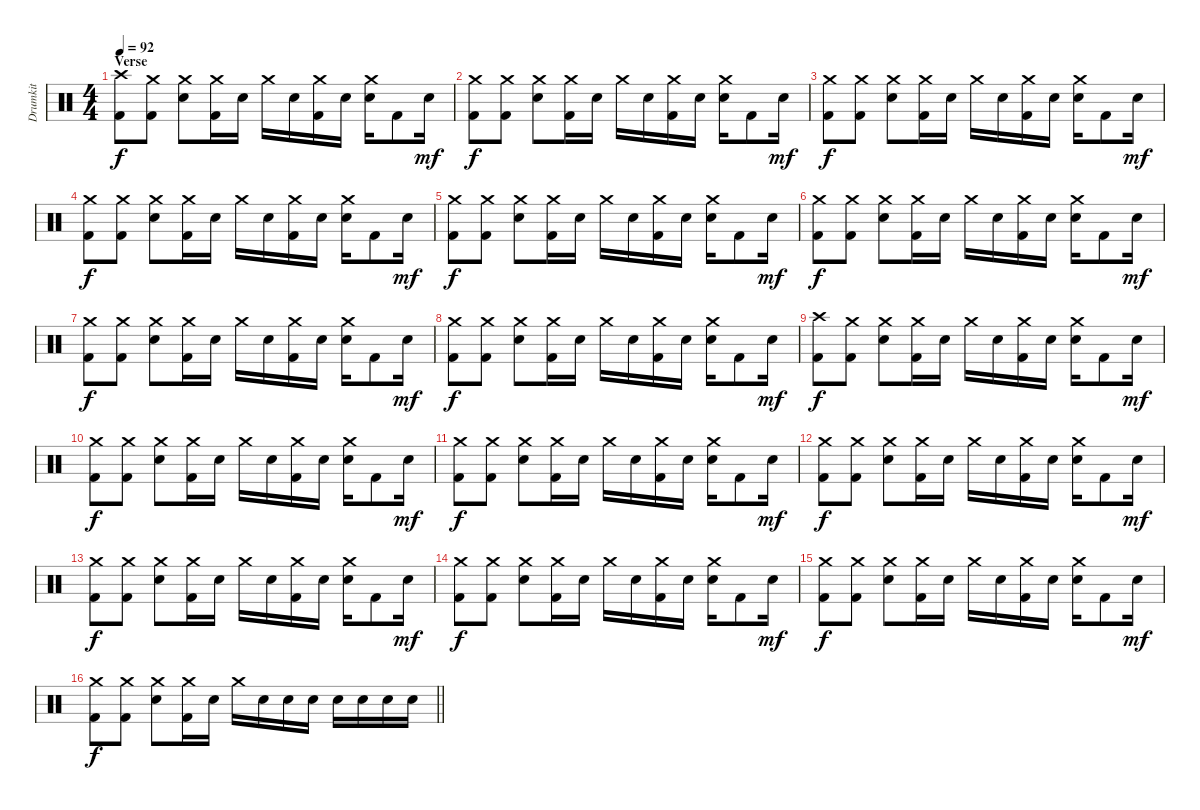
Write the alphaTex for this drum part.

\track ("Drumkit" "Drumkit") {instrument percussion}
\staff {score}
\articulation defaults
\ts (4 4)
\section ("" "Verse")
\tempo 92
\clef neutral
\ks c
("Crash high (hit)" "Kick (hit) 2").8{dy f} ("Crash medium (hit)" "Kick (hit) 2").8 ("Crash medium (hit)" "Snare (hit) 2").8 ("Crash medium (hit)" "Kick (hit) 2").16 "Snare (hit) 2".16 "Crash medium (hit)".16 "Snare (hit) 2".16 ("Crash medium (hit)" "Kick (hit) 2").16 "Snare (hit) 2".16 ("Crash medium (hit)" "Snare (hit) 2").16 "Kick (hit) 2".8 "Snare (hit) 2".16{dy mf} |
("Crash medium (hit)" "Kick (hit) 2").8{dy f} ("Crash medium (hit)" "Kick (hit) 2").8 ("Crash medium (hit)" "Snare (hit) 2").8 ("Crash medium (hit)" "Kick (hit) 2").16 "Snare (hit) 2".16 "Crash medium (hit)".16 "Snare (hit) 2".16 ("Crash medium (hit)" "Kick (hit) 2").16 "Snare (hit) 2".16 ("Crash medium (hit)" "Snare (hit) 2").16 "Kick (hit) 2".8 "Snare (hit) 2".16{dy mf} |
("Crash medium (hit)" "Kick (hit) 2").8{dy f} ("Crash medium (hit)" "Kick (hit) 2").8 ("Crash medium (hit)" "Snare (hit) 2").8 ("Crash medium (hit)" "Kick (hit) 2").16 "Snare (hit) 2".16 "Crash medium (hit)".16 "Snare (hit) 2".16 ("Crash medium (hit)" "Kick (hit) 2").16 "Snare (hit) 2".16 ("Crash medium (hit)" "Snare (hit) 2").16 "Kick (hit) 2".8 "Snare (hit) 2".16{dy mf} |
("Crash medium (hit)" "Kick (hit) 2").8{dy f} ("Crash medium (hit)" "Kick (hit) 2").8 ("Crash medium (hit)" "Snare (hit) 2").8 ("Crash medium (hit)" "Kick (hit) 2").16 "Snare (hit) 2".16 "Crash medium (hit)".16 "Snare (hit) 2".16 ("Crash medium (hit)" "Kick (hit) 2").16 "Snare (hit) 2".16 ("Crash medium (hit)" "Snare (hit) 2").16 "Kick (hit) 2".8 "Snare (hit) 2".16{dy mf} |
("Crash medium (hit)" "Kick (hit) 2").8{dy f} ("Crash medium (hit)" "Kick (hit) 2").8 ("Crash medium (hit)" "Snare (hit) 2").8 ("Crash medium (hit)" "Kick (hit) 2").16 "Snare (hit) 2".16 "Crash medium (hit)".16 "Snare (hit) 2".16 ("Crash medium (hit)" "Kick (hit) 2").16 "Snare (hit) 2".16 ("Crash medium (hit)" "Snare (hit) 2").16 "Kick (hit) 2".8 "Snare (hit) 2".16{dy mf} |
("Crash medium (hit)" "Kick (hit) 2").8{dy f} ("Crash medium (hit)" "Kick (hit) 2").8 ("Crash medium (hit)" "Snare (hit) 2").8 ("Crash medium (hit)" "Kick (hit) 2").16 "Snare (hit) 2".16 "Crash medium (hit)".16 "Snare (hit) 2".16 ("Crash medium (hit)" "Kick (hit) 2").16 "Snare (hit) 2".16 ("Crash medium (hit)" "Snare (hit) 2").16 "Kick (hit) 2".8 "Snare (hit) 2".16{dy mf} |
("Crash medium (hit)" "Kick (hit) 2").8{dy f} ("Crash medium (hit)" "Kick (hit) 2").8 ("Crash medium (hit)" "Snare (hit) 2").8 ("Crash medium (hit)" "Kick (hit) 2").16 "Snare (hit) 2".16 "Crash medium (hit)".16 "Snare (hit) 2".16 ("Crash medium (hit)" "Kick (hit) 2").16 "Snare (hit) 2".16 ("Crash medium (hit)" "Snare (hit) 2").16 "Kick (hit) 2".8 "Snare (hit) 2".16{dy mf} |
("Crash medium (hit)" "Kick (hit) 2").8{dy f} ("Crash medium (hit)" "Kick (hit) 2").8 ("Crash medium (hit)" "Snare (hit) 2").8 ("Crash medium (hit)" "Kick (hit) 2").16 "Snare (hit) 2".16 "Crash medium (hit)".16 "Snare (hit) 2".16 ("Crash medium (hit)" "Kick (hit) 2").16 "Snare (hit) 2".16 ("Crash medium (hit)" "Snare (hit) 2").16 "Kick (hit) 2".8 "Snare (hit) 2".16{dy mf} |
("Crash high (hit)" "Kick (hit) 2").8{dy f} ("Crash medium (hit)" "Kick (hit) 2").8 ("Crash medium (hit)" "Snare (hit) 2").8 ("Crash medium (hit)" "Kick (hit) 2").16 "Snare (hit) 2".16 "Crash medium (hit)".16 "Snare (hit) 2".16 ("Crash medium (hit)" "Kick (hit) 2").16 "Snare (hit) 2".16 ("Crash medium (hit)" "Snare (hit) 2").16 "Kick (hit) 2".8 "Snare (hit) 2".16{dy mf} |
("Crash medium (hit)" "Kick (hit) 2").8{dy f} ("Crash medium (hit)" "Kick (hit) 2").8 ("Crash medium (hit)" "Snare (hit) 2").8 ("Crash medium (hit)" "Kick (hit) 2").16 "Snare (hit) 2".16 "Crash medium (hit)".16 "Snare (hit) 2".16 ("Crash medium (hit)" "Kick (hit) 2").16 "Snare (hit) 2".16 ("Crash medium (hit)" "Snare (hit) 2").16 "Kick (hit) 2".8 "Snare (hit) 2".16{dy mf} |
("Crash medium (hit)" "Kick (hit) 2").8{dy f} ("Crash medium (hit)" "Kick (hit) 2").8 ("Crash medium (hit)" "Snare (hit) 2").8 ("Crash medium (hit)" "Kick (hit) 2").16 "Snare (hit) 2".16 "Crash medium (hit)".16 "Snare (hit) 2".16 ("Crash medium (hit)" "Kick (hit) 2").16 "Snare (hit) 2".16 ("Crash medium (hit)" "Snare (hit) 2").16 "Kick (hit) 2".8 "Snare (hit) 2".16{dy mf} |
("Crash medium (hit)" "Kick (hit) 2").8{dy f} ("Crash medium (hit)" "Kick (hit) 2").8 ("Crash medium (hit)" "Snare (hit) 2").8 ("Crash medium (hit)" "Kick (hit) 2").16 "Snare (hit) 2".16 "Crash medium (hit)".16 "Snare (hit) 2".16 ("Crash medium (hit)" "Kick (hit) 2").16 "Snare (hit) 2".16 ("Crash medium (hit)" "Snare (hit) 2").16 "Kick (hit) 2".8 "Snare (hit) 2".16{dy mf} |
("Crash medium (hit)" "Kick (hit) 2").8{dy f} ("Crash medium (hit)" "Kick (hit) 2").8 ("Crash medium (hit)" "Snare (hit) 2").8 ("Crash medium (hit)" "Kick (hit) 2").16 "Snare (hit) 2".16 "Crash medium (hit)".16 "Snare (hit) 2".16 ("Crash medium (hit)" "Kick (hit) 2").16 "Snare (hit) 2".16 ("Crash medium (hit)" "Snare (hit) 2").16 "Kick (hit) 2".8 "Snare (hit) 2".16{dy mf} |
("Crash medium (hit)" "Kick (hit) 2").8{dy f} ("Crash medium (hit)" "Kick (hit) 2").8 ("Crash medium (hit)" "Snare (hit) 2").8 ("Crash medium (hit)" "Kick (hit) 2").16 "Snare (hit) 2".16 "Crash medium (hit)".16 "Snare (hit) 2".16 ("Crash medium (hit)" "Kick (hit) 2").16 "Snare (hit) 2".16 ("Crash medium (hit)" "Snare (hit) 2").16 "Kick (hit) 2".8 "Snare (hit) 2".16{dy mf} |
("Crash medium (hit)" "Kick (hit) 2").8{dy f} ("Crash medium (hit)" "Kick (hit) 2").8 ("Crash medium (hit)" "Snare (hit) 2").8 ("Crash medium (hit)" "Kick (hit) 2").16 "Snare (hit) 2".16 "Crash medium (hit)".16 "Snare (hit) 2".16 ("Crash medium (hit)" "Kick (hit) 2").16 "Snare (hit) 2".16 ("Crash medium (hit)" "Snare (hit) 2").16 "Kick (hit) 2".8 "Snare (hit) 2".16{dy mf} |
\barLineRight lightlight
("Crash medium (hit)" "Kick (hit) 2").8{dy f} ("Crash medium (hit)" "Kick (hit) 2").8 ("Crash medium (hit)" "Snare (hit) 2").8 ("Crash medium (hit)" "Kick (hit) 2").16 "Snare (hit) 2".16 "Crash medium (hit)".16 "Snare (hit) 2".16 "Snare (hit) 2".16 "Snare (hit) 2".16 "Snare (hit) 2".16 "Snare (hit) 2".16 "Snare (hit) 2".16 "Snare (hit) 2".16
